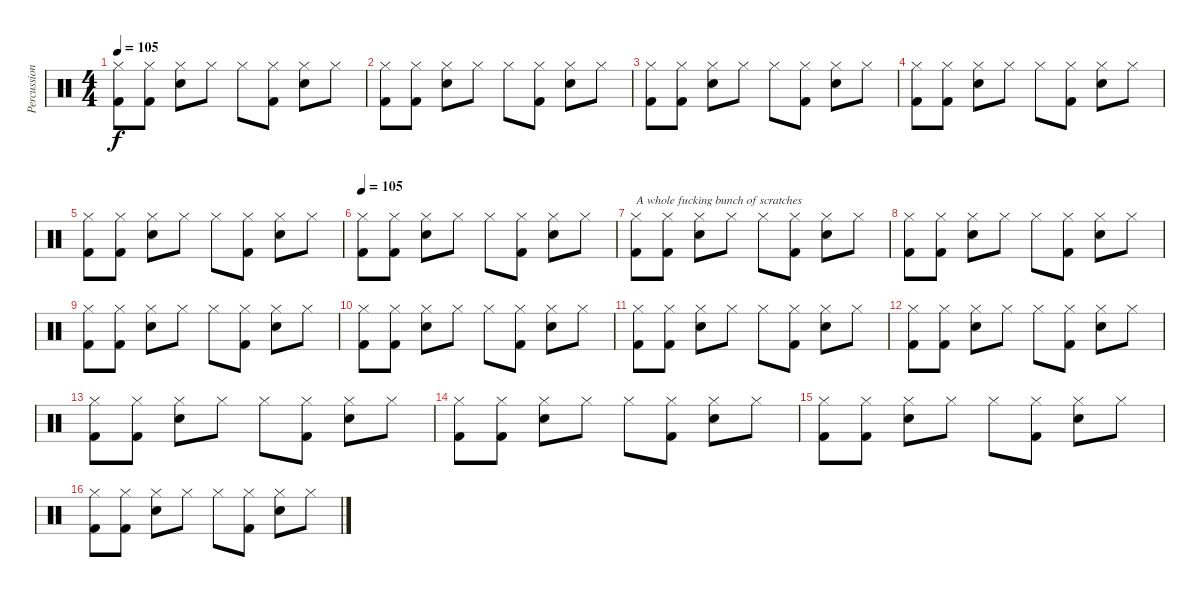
\track ("Percussions" "Percussion") {instrument percussion}
\staff {score}
\articulation defaults
\ts (4 4)
\tempo 105
\clef neutral
\ks c
("Hi-Hat (closed)" "Kick (hit) 2").8{dy f} ("Hi-Hat (closed)" "Kick (hit) 2").8 ("Hi-Hat (closed)" "Snare (hit) 2").8 "Hi-Hat (closed)".8 "Hi-Hat (closed)".8 ("Hi-Hat (closed)" "Kick (hit) 2").8 ("Hi-Hat (closed)" "Snare (hit) 2").8 "Hi-Hat (closed)".8 |
("Hi-Hat (closed)" "Kick (hit) 2").8 ("Hi-Hat (closed)" "Kick (hit) 2").8 ("Hi-Hat (closed)" "Snare (hit) 2").8 "Hi-Hat (closed)".8 "Hi-Hat (closed)".8 ("Hi-Hat (closed)" "Kick (hit) 2").8 ("Hi-Hat (closed)" "Snare (hit) 2").8 "Hi-Hat (closed)".8 |
("Hi-Hat (closed)" "Kick (hit) 2").8 ("Hi-Hat (closed)" "Kick (hit) 2").8 ("Hi-Hat (closed)" "Snare (hit) 2").8 "Hi-Hat (closed)".8 "Hi-Hat (closed)".8 ("Hi-Hat (closed)" "Kick (hit) 2").8 ("Hi-Hat (closed)" "Snare (hit) 2").8 "Hi-Hat (closed)".8 |
("Hi-Hat (closed)" "Kick (hit) 2").8 ("Hi-Hat (closed)" "Kick (hit) 2").8 ("Hi-Hat (closed)" "Snare (hit) 2").8 "Hi-Hat (closed)".8 "Hi-Hat (closed)".8 ("Hi-Hat (closed)" "Kick (hit) 2").8 ("Hi-Hat (closed)" "Snare (hit) 2").8 "Hi-Hat (closed)".8 |
("Hi-Hat (closed)" "Kick (hit) 2").8 ("Hi-Hat (closed)" "Kick (hit) 2").8 ("Hi-Hat (closed)" "Snare (hit) 2").8 "Hi-Hat (closed)".8 "Hi-Hat (closed)".8 ("Hi-Hat (closed)" "Kick (hit) 2").8 ("Hi-Hat (closed)" "Snare (hit) 2").8 "Hi-Hat (closed)".8 |
\tempo 105
("Hi-Hat (closed)" "Kick (hit) 2").8 ("Hi-Hat (closed)" "Kick (hit) 2").8 ("Hi-Hat (closed)" "Snare (hit) 2").8 "Hi-Hat (closed)".8 "Hi-Hat (closed)".8 ("Hi-Hat (closed)" "Kick (hit) 2").8 ("Hi-Hat (closed)" "Snare (hit) 2").8 "Hi-Hat (closed)".8 |
("Hi-Hat (closed)" "Kick (hit) 2").8{txt "A whole fucking bunch of scratches"} ("Hi-Hat (closed)" "Kick (hit) 2").8 ("Hi-Hat (closed)" "Snare (hit) 2").8 "Hi-Hat (closed)".8 "Hi-Hat (closed)".8 ("Hi-Hat (closed)" "Kick (hit) 2").8 ("Hi-Hat (closed)" "Snare (hit) 2").8 "Hi-Hat (closed)".8 |
("Hi-Hat (closed)" "Kick (hit) 2").8 ("Hi-Hat (closed)" "Kick (hit) 2").8 ("Hi-Hat (closed)" "Snare (hit) 2").8 "Hi-Hat (closed)".8 "Hi-Hat (closed)".8 ("Hi-Hat (closed)" "Kick (hit) 2").8 ("Hi-Hat (closed)" "Snare (hit) 2").8 "Hi-Hat (closed)".8 |
("Hi-Hat (closed)" "Kick (hit) 2").8 ("Hi-Hat (closed)" "Kick (hit) 2").8 ("Hi-Hat (closed)" "Snare (hit) 2").8 "Hi-Hat (closed)".8 "Hi-Hat (closed)".8 ("Hi-Hat (closed)" "Kick (hit) 2").8 ("Hi-Hat (closed)" "Snare (hit) 2").8 "Hi-Hat (closed)".8 |
("Hi-Hat (closed)" "Kick (hit) 2").8 ("Hi-Hat (closed)" "Kick (hit) 2").8 ("Hi-Hat (closed)" "Snare (hit) 2").8 "Hi-Hat (closed)".8 "Hi-Hat (closed)".8 ("Hi-Hat (closed)" "Kick (hit) 2").8 ("Hi-Hat (closed)" "Snare (hit) 2").8 "Hi-Hat (closed)".8 |
("Hi-Hat (closed)" "Kick (hit) 2").8 ("Hi-Hat (closed)" "Kick (hit) 2").8 ("Hi-Hat (closed)" "Snare (hit) 2").8 "Hi-Hat (closed)".8 "Hi-Hat (closed)".8 ("Hi-Hat (closed)" "Kick (hit) 2").8 ("Hi-Hat (closed)" "Snare (hit) 2").8 "Hi-Hat (closed)".8 |
("Hi-Hat (closed)" "Kick (hit) 2").8 ("Hi-Hat (closed)" "Kick (hit) 2").8 ("Hi-Hat (closed)" "Snare (hit) 2").8 "Hi-Hat (closed)".8 "Hi-Hat (closed)".8 ("Hi-Hat (closed)" "Kick (hit) 2").8 ("Hi-Hat (closed)" "Snare (hit) 2").8 "Hi-Hat (closed)".8 |
("Hi-Hat (closed)" "Kick (hit) 2").8 ("Hi-Hat (closed)" "Kick (hit) 2").8 ("Hi-Hat (closed)" "Snare (hit) 2").8 "Hi-Hat (closed)".8 "Hi-Hat (closed)".8 ("Hi-Hat (closed)" "Kick (hit) 2").8 ("Hi-Hat (closed)" "Snare (hit) 2").8 "Hi-Hat (closed)".8 |
("Hi-Hat (closed)" "Kick (hit) 2").8 ("Hi-Hat (closed)" "Kick (hit) 2").8 ("Hi-Hat (closed)" "Snare (hit) 2").8 "Hi-Hat (closed)".8 "Hi-Hat (closed)".8 ("Hi-Hat (closed)" "Kick (hit) 2").8 ("Hi-Hat (closed)" "Snare (hit) 2").8 "Hi-Hat (closed)".8 |
("Hi-Hat (closed)" "Kick (hit) 2").8 ("Hi-Hat (closed)" "Kick (hit) 2").8 ("Hi-Hat (closed)" "Snare (hit) 2").8 "Hi-Hat (closed)".8 "Hi-Hat (closed)".8 ("Hi-Hat (closed)" "Kick (hit) 2").8 ("Hi-Hat (closed)" "Snare (hit) 2").8 "Hi-Hat (closed)".8 |
("Hi-Hat (closed)" "Kick (hit) 2").8 ("Hi-Hat (closed)" "Kick (hit) 2").8 ("Hi-Hat (closed)" "Snare (hit) 2").8 "Hi-Hat (closed)".8 "Hi-Hat (closed)".8 ("Hi-Hat (closed)" "Kick (hit) 2").8 ("Hi-Hat (closed)" "Snare (hit) 2").8 "Hi-Hat (closed)".8
